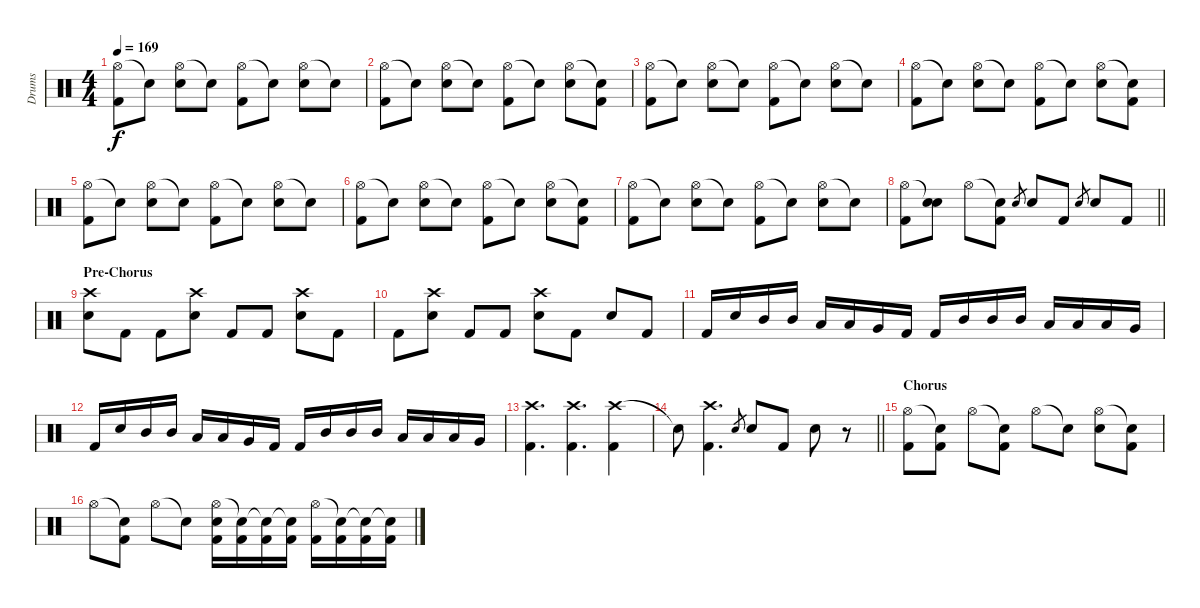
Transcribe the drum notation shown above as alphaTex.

\track ("Drums" "Drums") {instrument percussion}
\staff {score}
\articulation defaults
\ts (4 4)
\tempo 169
\clef neutral
\ks c
("Hi-Hat (open)" "Kick (hit) 2").8{dy f} "Snare (hit)"{t}.8 ("Hi-Hat (open)" "Electric Snare (hit)").8 "Snare (hit)"{t}.8 ("Hi-Hat (open)" "Kick (hit) 2").8 "Snare (hit)"{t}.8 ("Hi-Hat (open)" "Electric Snare (hit)").8 "Snare (hit)"{t}.8 |
("Hi-Hat (open)" "Kick (hit) 2").8 "Snare (hit)"{t}.8 ("Hi-Hat (open)" "Electric Snare (hit)").8 "Snare (hit)"{t}.8 ("Hi-Hat (open)" "Kick (hit) 2").8 "Snare (hit)"{t}.8 ("Hi-Hat (open)" "Electric Snare (hit)").8 ("Snare (hit)"{t} "Kick (hit) 2").8 |
("Hi-Hat (open)" "Kick (hit) 2").8 "Snare (hit)"{t}.8 ("Hi-Hat (open)" "Electric Snare (hit)").8 "Snare (hit)"{t}.8 ("Hi-Hat (open)" "Kick (hit) 2").8 "Snare (hit)"{t}.8 ("Hi-Hat (open)" "Electric Snare (hit)").8 "Snare (hit)"{t}.8 |
("Hi-Hat (open)" "Kick (hit) 2").8 "Snare (hit)"{t}.8 ("Hi-Hat (open)" "Electric Snare (hit)").8 "Snare (hit)"{t}.8 ("Hi-Hat (open)" "Kick (hit) 2").8 "Snare (hit)"{t}.8 ("Hi-Hat (open)" "Electric Snare (hit)").8 ("Snare (hit)"{t} "Kick (hit) 2").8 |
("Hi-Hat (open)" "Kick (hit) 2").8 "Snare (hit)"{t}.8 ("Hi-Hat (open)" "Electric Snare (hit)").8 "Snare (hit)"{t}.8 ("Hi-Hat (open)" "Kick (hit) 2").8 "Snare (hit)"{t}.8 ("Hi-Hat (open)" "Electric Snare (hit)").8 "Snare (hit)"{t}.8 |
("Hi-Hat (open)" "Kick (hit) 2").8 "Snare (hit)"{t}.8 ("Hi-Hat (open)" "Electric Snare (hit)").8 "Snare (hit)"{t}.8 ("Hi-Hat (open)" "Kick (hit) 2").8 "Snare (hit)"{t}.8 ("Hi-Hat (open)" "Electric Snare (hit)").8 ("Snare (hit)"{t} "Kick (hit) 2").8 |
("Hi-Hat (open)" "Kick (hit) 2").8 "Snare (hit)"{t}.8 ("Hi-Hat (open)" "Electric Snare (hit)").8 "Snare (hit)"{t}.8 ("Hi-Hat (open)" "Kick (hit) 2").8 "Snare (hit)"{t}.8 ("Hi-Hat (open)" "Electric Snare (hit)").8 "Snare (hit)"{t}.8 |
\barLineRight lightlight
("Hi-Hat (open)" "Kick (hit) 2").8 ("Snare (hit)"{t} "Electric Snare (hit)").8 "Hi-Hat (open)".8 ("Snare (hit)"{t} "Kick (hit) 2").8 "Electric Snare (hit)".8{gr} "Electric Snare (hit)".8 "Kick (hit) 2".8 "Electric Snare (hit)".8{gr} "Electric Snare (hit)".8 "Kick (hit) 2".8 |
\section ("" "Pre-Chorus")
("Crash high (hit)" "Electric Snare (hit)").8 "Kick (hit) 2".8 "Kick (hit) 2".8 ("Crash high (hit)" "Electric Snare (hit)").8 "Kick (hit) 2".8 "Kick (hit) 2".8 ("Crash high (hit)" "Electric Snare (hit)").8 "Kick (hit) 2".8 |
"Kick (hit) 2".8 ("Crash high (hit)" "Electric Snare (hit)").8 "Kick (hit) 2".8 "Kick (hit) 2".8 ("Crash high (hit)" "Electric Snare (hit)").8 "Kick (hit) 2".8 "Electric Snare (hit)".8 "Kick (hit) 2".8 |
"Kick (hit) 2".16 "Electric Snare (hit)".16 "Mid Tom (hit)".16 "Mid Tom (hit)".16 "Low Tom (hit)".16 "Low Tom (hit)".16 "Very Low Tom (hit)".16 "Kick (hit) 2".16 "Kick (hit) 2".16 "Mid Tom (hit)".16 "Mid Tom (hit)".16 "Mid Tom (hit)".16 "Low Tom (hit)".16 "Low Tom (hit)".16 "Low Tom (hit)".16 "Very Low Tom (hit)".16 |
"Kick (hit) 2".16 "Electric Snare (hit)".16 "Mid Tom (hit)".16 "Mid Tom (hit)".16 "Low Tom (hit)".16 "Low Tom (hit)".16 "Very Low Tom (hit)".16 "Kick (hit) 2".16 "Kick (hit) 2".16 "Mid Tom (hit)".16 "Mid Tom (hit)".16 "Mid Tom (hit)".16 "Low Tom (hit)".16 "Low Tom (hit)".16 "Low Tom (hit)".16 "Very Low Tom (hit)".16 |
("Crash high (hit)" "Kick (hit) 2").4{d} ("Crash high (hit)" "Kick (hit) 2").4{d} ("Crash high (hit)" "Kick (hit) 2").4 |
\barLineRight lightlight "Snare (hit)"{t}.8
("Crash high (hit)" "Kick (hit) 2").4{d} "Electric Snare (hit)".8{gr} "Electric Snare (hit)".8 "Kick (hit) 2".8 "Electric Snare (hit)".8 r.8 |
\section ("" "Chorus")
("Hi-Hat (open)" "Kick (hit) 2").8 ("Snare (hit)"{t} "Kick (hit) 2").8 "Hi-Hat (open)".8 ("Snare (hit)"{t} "Kick (hit) 2").8 "Hi-Hat (open)".8 "Snare (hit)"{t}.8 ("Hi-Hat (open)" "Electric Snare (hit)").8 ("Snare (hit)"{t} "Kick (hit) 2").8 |
"Hi-Hat (open)".8 ("Snare (hit)"{t} "Kick (hit) 2").8 "Hi-Hat (open)".8 "Snare (hit)"{t}.8 ("Hi-Hat (open)" "Electric Snare (hit)" "Kick (hit) 2").16 ("Snare (hit)"{t} "Kick (hit) 2").16 ("Snare (hit)"{t} "Kick (hit) 2").16 ("Snare (hit)"{t} "Kick (hit) 2").16 ("Hi-Hat (open)" "Kick (hit) 2").16 ("Snare (hit)"{t} "Kick (hit) 2").16 ("Snare (hit)"{t} "Kick (hit) 2").16 ("Snare (hit)"{t} "Kick (hit) 2").16
